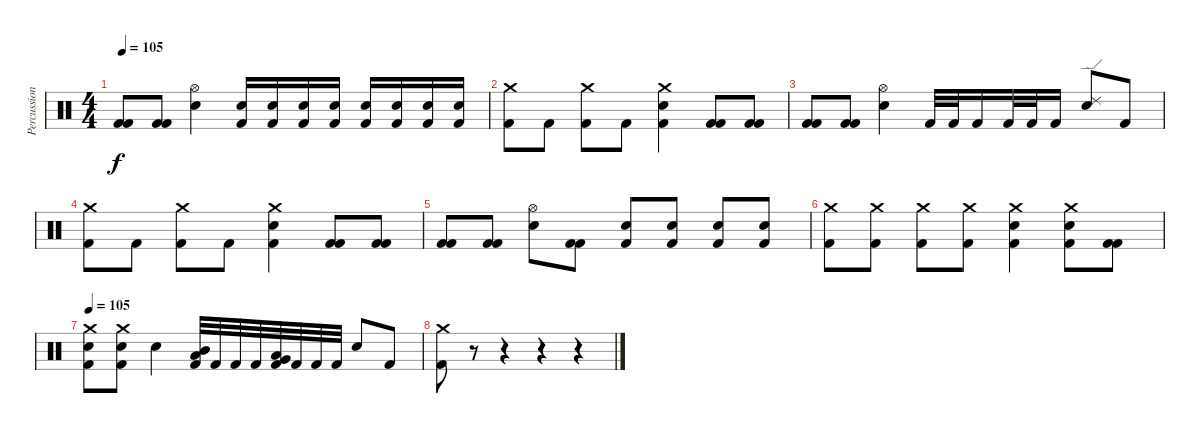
\track ("Percussion" "Percussion") {instrument percussion}
\staff {score}
\articulation defaults
\ts (4 4)
\tempo 105
\clef neutral
\ks c
("Kick (hit) 2" "Kick (hit) 2").8{dy f} ("Kick (hit) 2" "Kick (hit) 2").8 ("Hi-Hat (open)" "Electric Snare (hit)").4 ("Electric Snare (hit)" "Kick (hit) 2").16 ("Electric Snare (hit)" "Kick (hit) 2").16 ("Electric Snare (hit)" "Kick (hit) 2").16 ("Electric Snare (hit)" "Kick (hit) 2").16 ("Electric Snare (hit)" "Kick (hit) 2").16 ("Electric Snare (hit)" "Kick (hit) 2").16 ("Electric Snare (hit)" "Kick (hit) 2").16 ("Electric Snare (hit)" "Kick (hit) 2").16 |
("Crash medium (hit)" "Kick (hit) 2").8 "Kick (hit) 2".8 ("Crash medium (hit)" "Kick (hit) 2").8 "Kick (hit) 2".8 ("Crash medium (hit)" "Kick (hit) 2" "Electric Snare (hit)").4 ("Kick (hit) 2" "Kick (hit) 2").8 ("Kick (hit) 2" "Kick (hit) 2").8 |
("Kick (hit) 2" "Kick (hit) 2").8 ("Kick (hit) 2" "Kick (hit) 2").8 ("Hi-Hat (open)" "Electric Snare (hit)").4 "Kick (hit) 2".32 "Kick (hit) 2".32 "Kick (hit) 2".16 "Kick (hit) 2".32 "Kick (hit) 2".32 "Kick (hit) 2".16 ("Ride (edge) 2" "Electric Snare (hit)").8 "Kick (hit) 2".8 |
("Crash medium (hit)" "Kick (hit) 2").8 "Kick (hit) 2".8 ("Crash medium (hit)" "Kick (hit) 2").8 "Kick (hit) 2".8 ("Crash medium (hit)" "Kick (hit) 2" "Electric Snare (hit)").4 ("Kick (hit) 2" "Kick (hit) 2").8 ("Kick (hit) 2" "Kick (hit) 2").8 |
("Kick (hit) 2" "Kick (hit) 2").8 ("Kick (hit) 2" "Kick (hit) 2").8 ("Hi-Hat (open)" "Electric Snare (hit)").8 ("Kick (hit) 2" "Kick (hit) 2").8 ("Electric Snare (hit)" "Kick (hit) 2").8 ("Electric Snare (hit)" "Kick (hit) 2").8 ("Electric Snare (hit)" "Kick (hit) 2").8 ("Electric Snare (hit)" "Kick (hit) 2").8 |
("Crash medium (hit)" "Kick (hit) 2").8 ("Crash medium (hit)" "Kick (hit) 2").8 ("Crash medium (hit)" "Kick (hit) 2").8 ("Crash medium (hit)" "Kick (hit) 2").8 ("Crash medium (hit)" "Kick (hit) 2" "Electric Snare (hit)").4 ("Crash medium (hit)" "Electric Snare (hit)" "Kick (hit) 2").8 ("Kick (hit) 2" "Kick (hit) 2").8 |
\tempo 105
("Crash medium (hit)" "Electric Snare (hit)" "Kick (hit) 2").8 ("Crash medium (hit)" "Electric Snare (hit)" "Kick (hit) 2").8 "Electric Snare (hit)".4 ("Mid Tom (hit)" "Low Tom (hit)" "Kick (hit) 2").32 "Kick (hit) 2".32 "Kick (hit) 2".32 "Kick (hit) 2".32 ("Very Low Tom (hit)" "Low Tom (hit)" "Kick (hit) 2").32 "Kick (hit) 2".32 "Kick (hit) 2".32 "Kick (hit) 2".32 "Electric Snare (hit)".8 "Kick (hit) 2".8 |
("Crash medium (hit)" "Kick (hit) 2").8 r.8{volume 0} r.4 r.4 r.4
